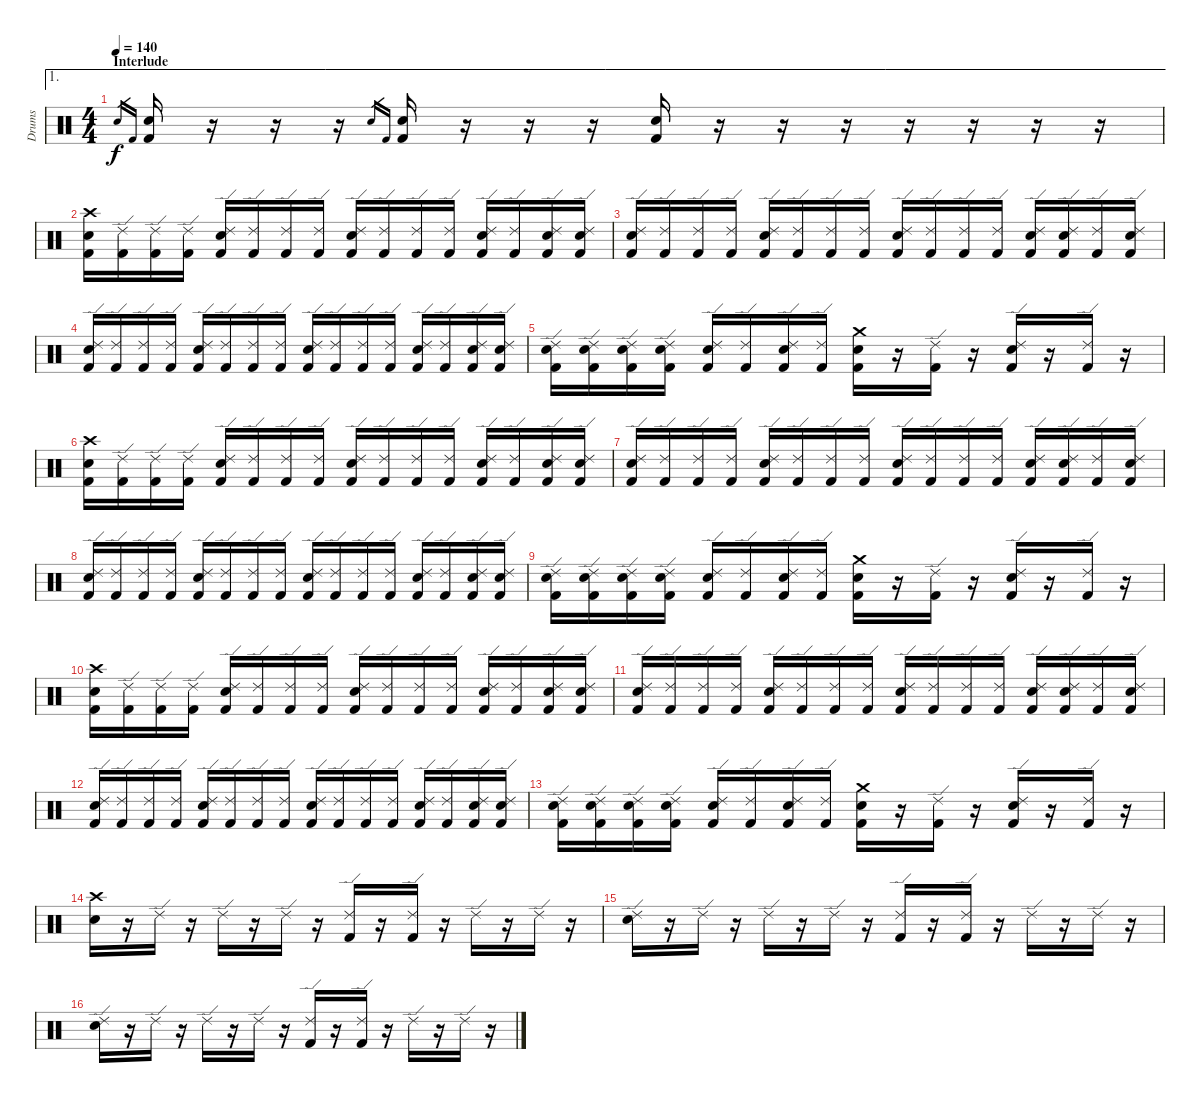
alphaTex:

\track ("Drums" "Drums") {instrument percussion}
\staff {score}
\articulation defaults
\ae 1
\ts (4 4)
\section ("" "Interlude")
\tempo 140
\clef neutral
\ks c "Snare (hit) 2".16{gr dy f} "Kick (hit) 2".16{gr}
("Snare (hit) 2" "Kick (hit) 2").16 r.16 r.16 r.16 "Snare (hit) 2".16{gr} "Kick (hit) 2".16{gr} ("Snare (hit) 2" "Kick (hit) 2").16 r.16 r.16 r.16 ("Electric Snare (hit)" "Kick (hit) 2").16 r.16 r.16 r.16 r.16 r.16 r.16 r.16 |
("Crash high (hit)" "Snare (hit) 2" "Kick (hit) 2").16 ("Ride (edge) 2" "Kick (hit) 2").16 ("Ride (edge) 2" "Kick (hit) 2").16 ("Ride (edge) 2" "Kick (hit) 2").16 ("Ride (edge) 2" "Snare (hit) 2" "Kick (hit) 2").16 ("Ride (edge) 2" "Kick (hit) 2").16 ("Ride (edge) 2" "Kick (hit) 2").16 ("Ride (edge) 2" "Kick (hit) 2").16 ("Ride (edge) 2" "Snare (hit) 2" "Kick (hit) 2").16 ("Ride (edge) 2" "Kick (hit) 2").16 ("Ride (edge) 2" "Kick (hit) 2").16 ("Ride (edge) 2" "Kick (hit) 2").16 ("Ride (edge) 2" "Snare (hit) 2" "Kick (hit) 2").16 ("Ride (edge) 2" "Kick (hit) 2").16 ("Ride (edge) 2" "Snare (hit) 2" "Kick (hit) 2").16 ("Ride (edge) 2" "Snare (hit) 2" "Kick (hit) 2").16 |
("Ride (edge) 2" "Snare (hit) 2" "Kick (hit) 2").16 ("Ride (edge) 2" "Kick (hit) 2").16 ("Ride (edge) 2" "Kick (hit) 2").16 ("Ride (edge) 2" "Kick (hit) 2").16 ("Ride (edge) 2" "Snare (hit) 2" "Kick (hit) 2").16 ("Ride (edge) 2" "Kick (hit) 2").16 ("Ride (edge) 2" "Kick (hit) 2").16 ("Ride (edge) 2" "Kick (hit) 2").16 ("Ride (edge) 2" "Snare (hit) 2" "Kick (hit) 2").16 ("Ride (edge) 2" "Kick (hit) 2").16 ("Ride (edge) 2" "Kick (hit) 2").16 ("Ride (edge) 2" "Kick (hit) 2").16 ("Ride (edge) 2" "Snare (hit) 2" "Kick (hit) 2").16 ("Ride (edge) 2" "Snare (hit) 2" "Kick (hit) 2").16 ("Ride (edge) 2" "Kick (hit) 2").16 ("Ride (edge) 2" "Snare (hit) 2" "Kick (hit) 2").16 |
("Ride (edge) 2" "Snare (hit) 2" "Kick (hit) 2").16 ("Ride (edge) 2" "Kick (hit) 2").16 ("Ride (edge) 2" "Kick (hit) 2").16 ("Ride (edge) 2" "Kick (hit) 2").16 ("Ride (edge) 2" "Snare (hit) 2" "Kick (hit) 2").16 ("Ride (edge) 2" "Kick (hit) 2").16 ("Ride (edge) 2" "Kick (hit) 2").16 ("Ride (edge) 2" "Kick (hit) 2").16 ("Ride (edge) 2" "Snare (hit) 2" "Kick (hit) 2").16 ("Ride (edge) 2" "Kick (hit) 2").16 ("Ride (edge) 2" "Kick (hit) 2").16 ("Ride (edge) 2" "Kick (hit) 2").16 ("Ride (edge) 2" "Snare (hit) 2" "Kick (hit) 2").16 ("Ride (edge) 2" "Kick (hit) 2").16 ("Ride (edge) 2" "Snare (hit) 2" "Kick (hit) 2").16 ("Ride (edge) 2" "Snare (hit) 2" "Kick (hit) 2").16 |
("Ride (edge) 2" "Snare (hit) 2" "Kick (hit) 2").16 ("Ride (edge) 2" "Snare (hit) 2" "Kick (hit) 2").16 ("Ride (edge) 2" "Snare (hit) 2" "Kick (hit) 2").16 ("Ride (edge) 2" "Snare (hit) 2" "Kick (hit) 2").16 ("Ride (edge) 2" "Snare (hit) 2" "Kick (hit) 2").16 ("Ride (edge) 2" "Kick (hit) 2").16 ("Ride (edge) 2" "Snare (hit) 2" "Kick (hit) 2").16 ("Ride (edge) 2" "Kick (hit) 2").16 ("Crash medium (hit)" "Snare (hit) 2" "Kick (hit) 2").16 r.16 ("Ride (edge) 2" "Kick (hit) 2").16 r.16 ("Ride (edge) 2" "Snare (hit) 2" "Kick (hit) 2").16 r.16 ("Ride (edge) 2" "Kick (hit) 2").16 r.16 |
("Crash high (hit)" "Snare (hit) 2" "Kick (hit) 2").16 ("Ride (edge) 2" "Kick (hit) 2").16 ("Ride (edge) 2" "Kick (hit) 2").16 ("Ride (edge) 2" "Kick (hit) 2").16 ("Ride (edge) 2" "Snare (hit) 2" "Kick (hit) 2").16 ("Ride (edge) 2" "Kick (hit) 2").16 ("Ride (edge) 2" "Kick (hit) 2").16 ("Ride (edge) 2" "Kick (hit) 2").16 ("Ride (edge) 2" "Snare (hit) 2" "Kick (hit) 2").16 ("Ride (edge) 2" "Kick (hit) 2").16 ("Ride (edge) 2" "Kick (hit) 2").16 ("Ride (edge) 2" "Kick (hit) 2").16 ("Ride (edge) 2" "Snare (hit) 2" "Kick (hit) 2").16 ("Ride (edge) 2" "Kick (hit) 2").16 ("Ride (edge) 2" "Snare (hit) 2" "Kick (hit) 2").16 ("Ride (edge) 2" "Snare (hit) 2" "Kick (hit) 2").16 |
("Ride (edge) 2" "Snare (hit) 2" "Kick (hit) 2").16 ("Ride (edge) 2" "Kick (hit) 2").16 ("Ride (edge) 2" "Kick (hit) 2").16 ("Ride (edge) 2" "Kick (hit) 2").16 ("Ride (edge) 2" "Snare (hit) 2" "Kick (hit) 2").16 ("Ride (edge) 2" "Kick (hit) 2").16 ("Ride (edge) 2" "Kick (hit) 2").16 ("Ride (edge) 2" "Kick (hit) 2").16 ("Ride (edge) 2" "Snare (hit) 2" "Kick (hit) 2").16 ("Ride (edge) 2" "Kick (hit) 2").16 ("Ride (edge) 2" "Kick (hit) 2").16 ("Ride (edge) 2" "Kick (hit) 2").16 ("Ride (edge) 2" "Snare (hit) 2" "Kick (hit) 2").16 ("Ride (edge) 2" "Snare (hit) 2" "Kick (hit) 2").16 ("Ride (edge) 2" "Kick (hit) 2").16 ("Ride (edge) 2" "Snare (hit) 2" "Kick (hit) 2").16 |
("Ride (edge) 2" "Snare (hit) 2" "Kick (hit) 2").16 ("Ride (edge) 2" "Kick (hit) 2").16 ("Ride (edge) 2" "Kick (hit) 2").16 ("Ride (edge) 2" "Kick (hit) 2").16 ("Ride (edge) 2" "Snare (hit) 2" "Kick (hit) 2").16 ("Ride (edge) 2" "Kick (hit) 2").16 ("Ride (edge) 2" "Kick (hit) 2").16 ("Ride (edge) 2" "Kick (hit) 2").16 ("Ride (edge) 2" "Snare (hit) 2" "Kick (hit) 2").16 ("Ride (edge) 2" "Kick (hit) 2").16 ("Ride (edge) 2" "Kick (hit) 2").16 ("Ride (edge) 2" "Kick (hit) 2").16 ("Ride (edge) 2" "Snare (hit) 2" "Kick (hit) 2").16 ("Ride (edge) 2" "Kick (hit) 2").16 ("Ride (edge) 2" "Snare (hit) 2" "Kick (hit) 2").16 ("Ride (edge) 2" "Snare (hit) 2" "Kick (hit) 2").16 |
("Ride (edge) 2" "Snare (hit) 2" "Kick (hit) 2").16 ("Ride (edge) 2" "Snare (hit) 2" "Kick (hit) 2").16 ("Ride (edge) 2" "Snare (hit) 2" "Kick (hit) 2").16 ("Ride (edge) 2" "Snare (hit) 2" "Kick (hit) 2").16 ("Ride (edge) 2" "Snare (hit) 2" "Kick (hit) 2").16 ("Ride (edge) 2" "Kick (hit) 2").16 ("Ride (edge) 2" "Snare (hit) 2" "Kick (hit) 2").16 ("Ride (edge) 2" "Kick (hit) 2").16 ("Crash medium (hit)" "Snare (hit) 2" "Kick (hit) 2").16 r.16 ("Ride (edge) 2" "Kick (hit) 2").16 r.16 ("Ride (edge) 2" "Snare (hit) 2" "Kick (hit) 2").16 r.16 ("Ride (edge) 2" "Kick (hit) 2").16 r.16 |
("Crash high (hit)" "Snare (hit) 2" "Kick (hit) 2").16 ("Ride (edge) 2" "Kick (hit) 2").16 ("Ride (edge) 2" "Kick (hit) 2").16 ("Ride (edge) 2" "Kick (hit) 2").16 ("Ride (edge) 2" "Snare (hit) 2" "Kick (hit) 2").16 ("Ride (edge) 2" "Kick (hit) 2").16 ("Ride (edge) 2" "Kick (hit) 2").16 ("Ride (edge) 2" "Kick (hit) 2").16 ("Ride (edge) 2" "Snare (hit) 2" "Kick (hit) 2").16 ("Ride (edge) 2" "Kick (hit) 2").16 ("Ride (edge) 2" "Kick (hit) 2").16 ("Ride (edge) 2" "Kick (hit) 2").16 ("Ride (edge) 2" "Snare (hit) 2" "Kick (hit) 2").16 ("Ride (edge) 2" "Kick (hit) 2").16 ("Ride (edge) 2" "Snare (hit) 2" "Kick (hit) 2").16 ("Ride (edge) 2" "Snare (hit) 2" "Kick (hit) 2").16 |
("Ride (edge) 2" "Snare (hit) 2" "Kick (hit) 2").16 ("Ride (edge) 2" "Kick (hit) 2").16 ("Ride (edge) 2" "Kick (hit) 2").16 ("Ride (edge) 2" "Kick (hit) 2").16 ("Ride (edge) 2" "Snare (hit) 2" "Kick (hit) 2").16 ("Ride (edge) 2" "Kick (hit) 2").16 ("Ride (edge) 2" "Kick (hit) 2").16 ("Ride (edge) 2" "Kick (hit) 2").16 ("Ride (edge) 2" "Snare (hit) 2" "Kick (hit) 2").16 ("Ride (edge) 2" "Kick (hit) 2").16 ("Ride (edge) 2" "Kick (hit) 2").16 ("Ride (edge) 2" "Kick (hit) 2").16 ("Ride (edge) 2" "Snare (hit) 2" "Kick (hit) 2").16 ("Ride (edge) 2" "Snare (hit) 2" "Kick (hit) 2").16 ("Ride (edge) 2" "Kick (hit) 2").16 ("Ride (edge) 2" "Snare (hit) 2" "Kick (hit) 2").16 |
("Ride (edge) 2" "Snare (hit) 2" "Kick (hit) 2").16 ("Ride (edge) 2" "Kick (hit) 2").16 ("Ride (edge) 2" "Kick (hit) 2").16 ("Ride (edge) 2" "Kick (hit) 2").16 ("Ride (edge) 2" "Snare (hit) 2" "Kick (hit) 2").16 ("Ride (edge) 2" "Kick (hit) 2").16 ("Ride (edge) 2" "Kick (hit) 2").16 ("Ride (edge) 2" "Kick (hit) 2").16 ("Ride (edge) 2" "Snare (hit) 2" "Kick (hit) 2").16 ("Ride (edge) 2" "Kick (hit) 2").16 ("Ride (edge) 2" "Kick (hit) 2").16 ("Ride (edge) 2" "Kick (hit) 2").16 ("Ride (edge) 2" "Snare (hit) 2" "Kick (hit) 2").16 ("Ride (edge) 2" "Kick (hit) 2").16 ("Ride (edge) 2" "Snare (hit) 2" "Kick (hit) 2").16 ("Ride (edge) 2" "Snare (hit) 2" "Kick (hit) 2").16 |
("Ride (edge) 2" "Snare (hit) 2" "Kick (hit) 2").16 ("Ride (edge) 2" "Snare (hit) 2" "Kick (hit) 2").16 ("Ride (edge) 2" "Snare (hit) 2" "Kick (hit) 2").16 ("Ride (edge) 2" "Snare (hit) 2" "Kick (hit) 2").16 ("Ride (edge) 2" "Snare (hit) 2" "Kick (hit) 2").16 ("Ride (edge) 2" "Kick (hit) 2").16 ("Ride (edge) 2" "Snare (hit) 2" "Kick (hit) 2").16 ("Ride (edge) 2" "Kick (hit) 2").16 ("Crash medium (hit)" "Snare (hit) 2" "Kick (hit) 2").16 r.16 ("Ride (edge) 2" "Kick (hit) 2").16 r.16 ("Ride (edge) 2" "Snare (hit) 2" "Kick (hit) 2").16 r.16 ("Ride (edge) 2" "Kick (hit) 2").16 r.16 |
("Crash high (hit)" "Snare (hit) 2").16 r.16 "Ride (edge) 2".16 r.16 "Ride (edge) 2".16 r.16 "Ride (edge) 2".16 r.16 ("Ride (edge) 2" "Kick (hit) 2").16 r.16 ("Ride (edge) 2" "Kick (hit) 2").16 r.16 "Ride (edge) 2".16 r.16 "Ride (edge) 2".16 r.16 |
("Ride (edge) 2" "Snare (hit) 2").16 r.16 "Ride (edge) 2".16 r.16 "Ride (edge) 2".16 r.16 "Ride (edge) 2".16 r.16 ("Ride (edge) 2" "Kick (hit) 2").16 r.16 ("Ride (edge) 2" "Kick (hit) 2").16 r.16 "Ride (edge) 2".16 r.16 "Ride (edge) 2".16 r.16 |
("Ride (edge) 2" "Snare (hit) 2").16 r.16 "Ride (edge) 2".16 r.16 "Ride (edge) 2".16 r.16 "Ride (edge) 2".16 r.16 ("Ride (edge) 2" "Kick (hit) 2").16 r.16 ("Ride (edge) 2" "Kick (hit) 2").16 r.16 "Ride (edge) 2".16 r.16 "Ride (edge) 2".16 r.16
